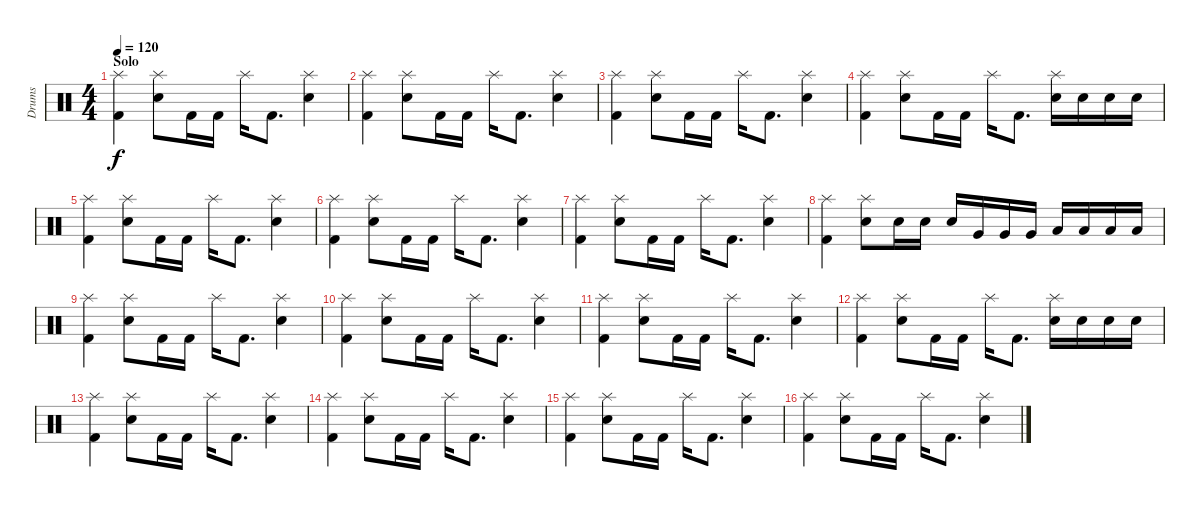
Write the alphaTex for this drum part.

\track ("Drums" "Drums") {instrument percussion}
\staff {score}
\articulation defaults
\ts (4 4)
\section ("" "Solo")
\tempo 120
\clef neutral
\ks c
("Splash (hit)" "Kick (hit) 2").4{dy f} ("Splash (hit)" "Electric Snare (hit)").8 "Kick (hit) 2".16 "Kick (hit) 2".16 "Splash (hit)".16 "Kick (hit) 2".8{d} ("Splash (hit)" "Electric Snare (hit)").4 |
("Splash (hit)" "Kick (hit) 2").4 ("Splash (hit)" "Electric Snare (hit)").8 "Kick (hit) 2".16 "Kick (hit) 2".16 "Splash (hit)".16 "Kick (hit) 2".8{d} ("Splash (hit)" "Electric Snare (hit)").4 |
("Splash (hit)" "Kick (hit) 2").4 ("Splash (hit)" "Electric Snare (hit)").8 "Kick (hit) 2".16 "Kick (hit) 2".16 "Splash (hit)".16 "Kick (hit) 2".8{d} ("Splash (hit)" "Electric Snare (hit)").4 |
("Splash (hit)" "Kick (hit) 2").4 ("Splash (hit)" "Electric Snare (hit)").8 "Kick (hit) 2".16 "Kick (hit) 2".16 "Splash (hit)".16 "Kick (hit) 2".8{d} ("Splash (hit)" "Electric Snare (hit)").16 "Electric Snare (hit)".16 "Electric Snare (hit)".16 "Electric Snare (hit)".16 |
("Splash (hit)" "Kick (hit) 2").4 ("Splash (hit)" "Electric Snare (hit)").8 "Kick (hit) 2".16 "Kick (hit) 2".16 "Splash (hit)".16 "Kick (hit) 2".8{d} ("Splash (hit)" "Electric Snare (hit)").4 |
("Splash (hit)" "Kick (hit) 2").4 ("Splash (hit)" "Electric Snare (hit)").8 "Kick (hit) 2".16 "Kick (hit) 2".16 "Splash (hit)".16 "Kick (hit) 2".8{d} ("Splash (hit)" "Electric Snare (hit)").4 |
("Splash (hit)" "Kick (hit) 2").4 ("Splash (hit)" "Electric Snare (hit)").8 "Kick (hit) 2".16 "Kick (hit) 2".16 "Splash (hit)".16 "Kick (hit) 2".8{d} ("Splash (hit)" "Electric Snare (hit)").4 |
("Splash (hit)" "Kick (hit) 2").4 ("Splash (hit)" "Electric Snare (hit)").8 "Electric Snare (hit)".16 "Electric Snare (hit)".16 "Electric Snare (hit)".16 "Very Low Tom (hit)".16 "Very Low Tom (hit)".16 "Very Low Tom (hit)".16 "Low Tom (hit)".16 "Low Tom (hit)".16 "Low Tom (hit)".16 "Low Tom (hit)".16 |
("Splash (hit)" "Kick (hit) 2").4 ("Splash (hit)" "Electric Snare (hit)").8 "Kick (hit) 2".16 "Kick (hit) 2".16 "Splash (hit)".16 "Kick (hit) 2".8{d} ("Splash (hit)" "Electric Snare (hit)").4 |
("Splash (hit)" "Kick (hit) 2").4 ("Splash (hit)" "Electric Snare (hit)").8 "Kick (hit) 2".16 "Kick (hit) 2".16 "Splash (hit)".16 "Kick (hit) 2".8{d} ("Splash (hit)" "Electric Snare (hit)").4 |
("Splash (hit)" "Kick (hit) 2").4 ("Splash (hit)" "Electric Snare (hit)").8 "Kick (hit) 2".16 "Kick (hit) 2".16 "Splash (hit)".16 "Kick (hit) 2".8{d} ("Splash (hit)" "Electric Snare (hit)").4 |
("Splash (hit)" "Kick (hit) 2").4 ("Splash (hit)" "Electric Snare (hit)").8 "Kick (hit) 2".16 "Kick (hit) 2".16 "Splash (hit)".16 "Kick (hit) 2".8{d} ("Splash (hit)" "Electric Snare (hit)").16 "Electric Snare (hit)".16 "Electric Snare (hit)".16 "Electric Snare (hit)".16 |
("Splash (hit)" "Kick (hit) 2").4 ("Splash (hit)" "Electric Snare (hit)").8 "Kick (hit) 2".16 "Kick (hit) 2".16 "Splash (hit)".16 "Kick (hit) 2".8{d} ("Splash (hit)" "Electric Snare (hit)").4 |
("Splash (hit)" "Kick (hit) 2").4 ("Splash (hit)" "Electric Snare (hit)").8 "Kick (hit) 2".16 "Kick (hit) 2".16 "Splash (hit)".16 "Kick (hit) 2".8{d} ("Splash (hit)" "Electric Snare (hit)").4 |
("Splash (hit)" "Kick (hit) 2").4 ("Splash (hit)" "Electric Snare (hit)").8 "Kick (hit) 2".16 "Kick (hit) 2".16 "Splash (hit)".16 "Kick (hit) 2".8{d} ("Splash (hit)" "Electric Snare (hit)").4 |
("Splash (hit)" "Kick (hit) 2").4 ("Splash (hit)" "Electric Snare (hit)").8 "Kick (hit) 2".16 "Kick (hit) 2".16 "Splash (hit)".16 "Kick (hit) 2".8{d} ("Splash (hit)" "Electric Snare (hit)").4
